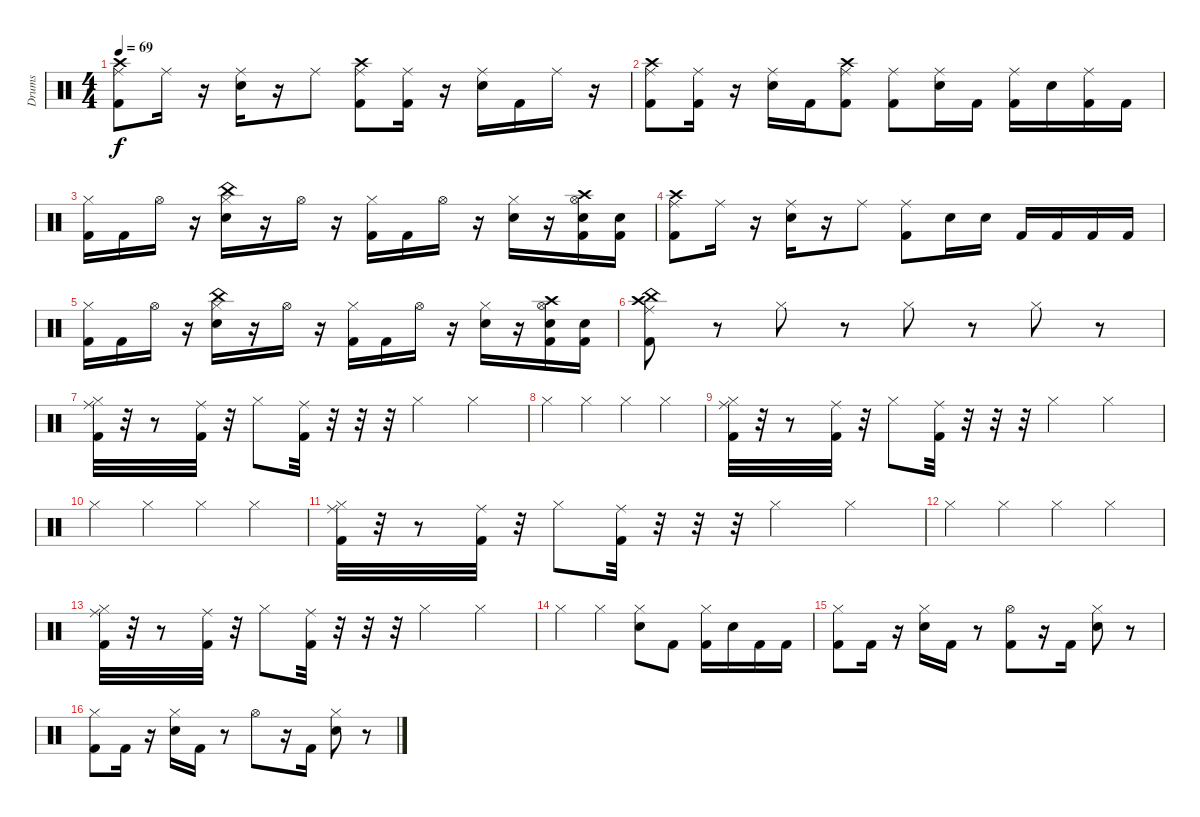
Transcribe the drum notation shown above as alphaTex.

\track ("Drums" "Drums") {instrument percussion}
\staff {score}
\articulation defaults
\ts (4 4)
\tempo 69
\clef neutral
\ks c
("Ride (middle)" "Kick (hit) 2" "Crash high (hit)").8{dy f} "Ride (middle)".16 r.16 ("Ride (middle)" "Snare (hit) 2").16 r.16 "Ride (middle)".8 ("Ride (middle)" "Kick (hit) 2" "Crash high (hit)").8 ("Ride (middle)" "Kick (hit) 2").16 r.16 ("Ride (middle)" "Snare (hit) 2").16 "Kick (hit) 2".16 "Ride (middle)".16 r.16 |
("Ride (middle)" "Kick (hit) 2" "Crash high (hit)").8 ("Ride (middle)" "Kick (hit) 2").16 r.16 ("Ride (middle)" "Snare (hit) 2").16 "Kick (hit) 2".16 ("Ride (middle)" "Kick (hit) 2" "Crash high (hit)").8 ("Ride (middle)" "Kick (hit) 2").8 ("Ride (middle)" "Snare (hit) 2").16 "Kick (hit) 2".16 ("Ride (middle)" "Kick (hit) 2").16 "Snare (hit) 2".16 ("Ride (middle)" "Kick (hit) 2").16 "Kick (hit) 2".16 |
("Hi-Hat (closed)" "Kick (hit) 2").16 "Kick (hit) 2".16 "Hi-Hat (open)".16 r.16 ("Hi-Hat (closed)" "Snare (hit) 2" "China (hit)").16 r.16 "Hi-Hat (open)".16 r.16 ("Hi-Hat (closed)" "Kick (hit) 2").16 "Kick (hit) 2".16 "Hi-Hat (open)".16 r.16 ("Hi-Hat (closed)" "Snare (hit) 2").16 r.16 ("Hi-Hat (open)" "Kick (hit) 2" "Snare (hit) 2" "Crash high (hit)").16 ("Kick (hit) 2" "Snare (hit) 2").16 |
("Ride (middle)" "Kick (hit) 2" "Crash high (hit)").8 "Ride (middle)".16 r.16 ("Ride (middle)" "Snare (hit) 2").16 r.16 "Ride (middle)".8 ("Ride (middle)" "Kick (hit) 2").8 "Snare (hit) 2".16 "Snare (hit) 2".16 "Kick (hit) 2".16 "Kick (hit) 2".16 "Kick (hit) 2".16 "Kick (hit) 2".16 |
("Hi-Hat (closed)" "Kick (hit) 2").16 "Kick (hit) 2".16 "Hi-Hat (open)".16 r.16 ("Hi-Hat (closed)" "Snare (hit) 2" "China (hit)").16 r.16 "Hi-Hat (open)".16 r.16 ("Hi-Hat (closed)" "Kick (hit) 2").16 "Kick (hit) 2".16 "Hi-Hat (open)".16 r.16 ("Hi-Hat (closed)" "Snare (hit) 2").16 r.16 ("Hi-Hat (open)" "Kick (hit) 2" "Snare (hit) 2" "Crash high (hit)").16 ("Kick (hit) 2" "Snare (hit) 2").16 |
("Ride (middle)" "Kick (hit) 2" "Crash high (hit)" "China (hit)").8 r.8 "Hi-Hat (closed)".8 r.8 "Hi-Hat (closed)".8 r.8 "Hi-Hat (closed)".8 r.8 |
("Hi-Hat (closed)" "Kick (hit) 2" "Ride (middle)").32 r.32 r.8 ("Kick (hit) 2" "Ride (middle)").32 r.32 "Hi-Hat (closed)".8 ("Kick (hit) 2" "Ride (middle)").32 r.32 r.32 r.32 "Hi-Hat (closed)".4 "Hi-Hat (closed)".4 |
"Hi-Hat (closed)".4 "Hi-Hat (closed)".4 "Hi-Hat (closed)".4 "Hi-Hat (closed)".4 |
("Hi-Hat (closed)" "Kick (hit) 2" "Ride (middle)").32 r.32 r.8 ("Kick (hit) 2" "Ride (middle)").32 r.32 "Hi-Hat (closed)".8 ("Kick (hit) 2" "Ride (middle)").32 r.32 r.32 r.32 "Hi-Hat (closed)".4 "Hi-Hat (closed)".4 |
"Hi-Hat (closed)".4 "Hi-Hat (closed)".4 "Hi-Hat (closed)".4 "Hi-Hat (closed)".4 |
("Hi-Hat (closed)" "Kick (hit) 2" "Ride (middle)").32 r.32 r.8 ("Kick (hit) 2" "Ride (middle)").32 r.32 "Hi-Hat (closed)".8 ("Kick (hit) 2" "Ride (middle)").32 r.32 r.32 r.32 "Hi-Hat (closed)".4 "Hi-Hat (closed)".4 |
"Hi-Hat (closed)".4 "Hi-Hat (closed)".4 "Hi-Hat (closed)".4 "Hi-Hat (closed)".4 |
("Hi-Hat (closed)" "Kick (hit) 2" "Ride (middle)").32 r.32 r.8 ("Kick (hit) 2" "Ride (middle)").32 r.32 "Hi-Hat (closed)".8 ("Kick (hit) 2" "Ride (middle)").32 r.32 r.32 r.32 "Hi-Hat (closed)".4 "Hi-Hat (closed)".4 |
"Hi-Hat (closed)".4 "Hi-Hat (closed)".4 ("Hi-Hat (closed)" "Snare (hit) 2").8 "Kick (hit) 2".8 ("Hi-Hat (closed)" "Kick (hit) 2").16 "Snare (hit) 2".16 "Kick (hit) 2".16 "Kick (hit) 2".16 |
("Hi-Hat (closed)" "Kick (hit) 2").8 "Kick (hit) 2".16 r.16 ("Hi-Hat (closed)" "Snare (hit) 2").16 "Kick (hit) 2".16 r.8 ("Hi-Hat (open)" "Kick (hit) 2").8 r.16 "Kick (hit) 2".16 ("Hi-Hat (closed)" "Snare (hit) 2").8 r.8 |
("Hi-Hat (closed)" "Kick (hit) 2").8 "Kick (hit) 2".16 r.16 ("Hi-Hat (closed)" "Snare (hit) 2").16 "Kick (hit) 2".16 r.8 "Hi-Hat (open)".8 r.16 "Kick (hit) 2".16 ("Hi-Hat (closed)" "Snare (hit) 2").8 r.8
